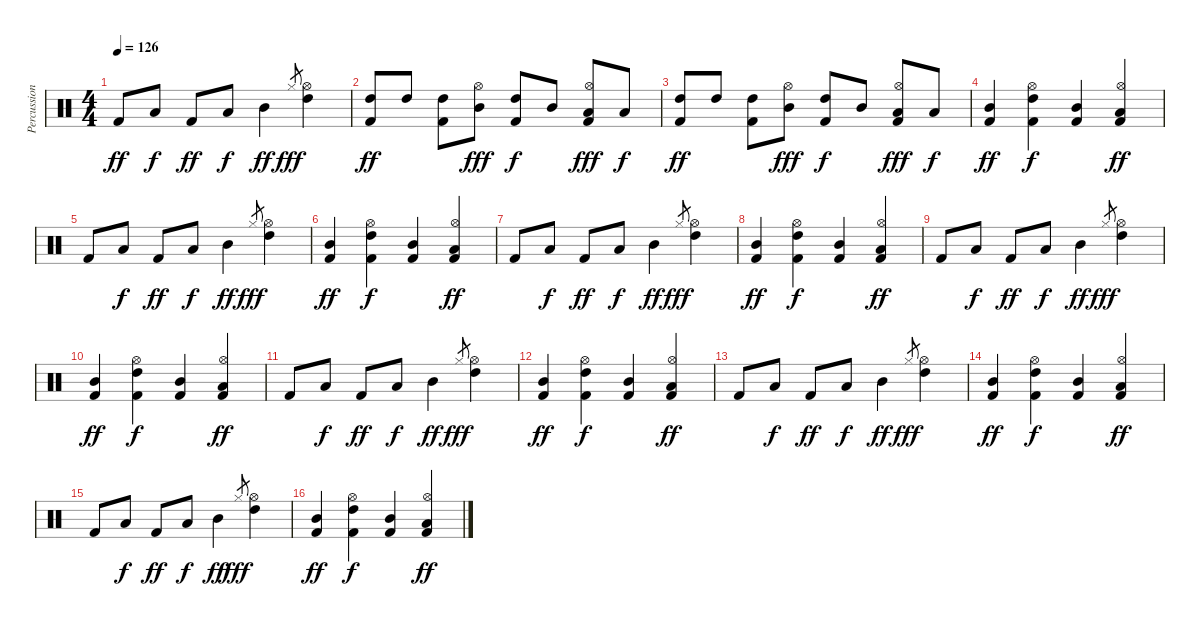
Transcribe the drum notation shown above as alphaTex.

\track ("Percussion" "Percussion") {instrument percussion}
\staff {score}
\articulation defaults
\ts (4 4)
\tempo 126
\clef neutral
\ks c "Kick (hit) 2".8{dy ff balance 3} "Low Floor Tom (hit)".8{dy f} "Kick (hit) 2".8{dy ff} "Low Floor Tom (hit)".8{dy f} "Mid Tom (hit)".4{dy ff} "Hi-Hat (closed)".8{gr dy fff}
("High Tom (hit)" "Hi-Hat (open)").4 |
("Kick (hit) 2" "High Tom (hit)").8{dy ff balance 10} "High Tom (hit)".8 ("Kick (hit) 2" "High Tom (hit)").8 ("Mid Tom (hit)" "Hi-Hat (open)").8{dy fff} ("Kick (hit) 2" "High Tom (hit)").8{dy f} "Mid Tom (hit)".8 ("Kick (hit) 2" "Low Tom (hit)" "Hi-Hat (open)").8{dy fff} "Low Tom (hit)".8{dy f} |
("Kick (hit) 2" "High Tom (hit)").8{dy ff} "High Tom (hit)".8 ("Kick (hit) 2" "High Tom (hit)").8 ("Mid Tom (hit)" "Hi-Hat (open)").8{dy fff} ("Kick (hit) 2" "High Tom (hit)").8{dy f} "Mid Tom (hit)".8 ("Kick (hit) 2" "Low Tom (hit)" "Hi-Hat (open)").8{dy fff} "Low Tom (hit)".8{dy f} |
("Kick (hit) 2" "Mid Tom (hit)").4{dy ff} ("Kick (hit) 2" "High Tom (hit)" "Hi-Hat (open)").4{dy f} ("Kick (hit) 2" "Mid Tom (hit)").4 ("Kick (hit) 2" "Low Tom (hit)" "Hi-Hat (open)").4{dy ff} |
"Kick (hit) 2".8 "Low Floor Tom (hit)".8{dy f} "Kick (hit) 2".8{dy ff} "Low Floor Tom (hit)".8{dy f} "Mid Tom (hit)".4{dy ff} "Hi-Hat (closed)".8{gr dy fff} ("High Tom (hit)" "Hi-Hat (open)").4 |
("Kick (hit) 2" "Mid Tom (hit)").4{dy ff} ("Kick (hit) 2" "High Tom (hit)" "Hi-Hat (open)").4{dy f} ("Kick (hit) 2" "Mid Tom (hit)").4 ("Kick (hit) 2" "Low Tom (hit)" "Hi-Hat (open)").4{dy ff} |
"Kick (hit) 2".8 "Low Floor Tom (hit)".8{dy f} "Kick (hit) 2".8{dy ff} "Low Floor Tom (hit)".8{dy f} "Mid Tom (hit)".4{dy ff} "Hi-Hat (closed)".8{gr dy fff} ("High Tom (hit)" "Hi-Hat (open)").4 |
("Kick (hit) 2" "Mid Tom (hit)").4{dy ff} ("Kick (hit) 2" "High Tom (hit)" "Hi-Hat (open)").4{dy f} ("Kick (hit) 2" "Mid Tom (hit)").4 ("Kick (hit) 2" "Low Tom (hit)" "Hi-Hat (open)").4{dy ff} |
"Kick (hit) 2".8 "Low Floor Tom (hit)".8{dy f} "Kick (hit) 2".8{dy ff} "Low Floor Tom (hit)".8{dy f} "Mid Tom (hit)".4{dy ff} "Hi-Hat (closed)".8{gr dy fff} ("High Tom (hit)" "Hi-Hat (open)").4 |
("Kick (hit) 2" "Mid Tom (hit)").4{dy ff} ("Kick (hit) 2" "High Tom (hit)" "Hi-Hat (open)").4{dy f} ("Kick (hit) 2" "Mid Tom (hit)").4 ("Kick (hit) 2" "Low Tom (hit)" "Hi-Hat (open)").4{dy ff} |
"Kick (hit) 2".8 "Low Floor Tom (hit)".8{dy f} "Kick (hit) 2".8{dy ff} "Low Floor Tom (hit)".8{dy f} "Mid Tom (hit)".4{dy ff} "Hi-Hat (closed)".8{gr dy fff} ("High Tom (hit)" "Hi-Hat (open)").4 |
("Kick (hit) 2" "Mid Tom (hit)").4{dy ff} ("Kick (hit) 2" "High Tom (hit)" "Hi-Hat (open)").4{dy f} ("Kick (hit) 2" "Mid Tom (hit)").4 ("Kick (hit) 2" "Low Tom (hit)" "Hi-Hat (open)").4{dy ff} |
"Kick (hit) 2".8 "Low Floor Tom (hit)".8{dy f} "Kick (hit) 2".8{dy ff} "Low Floor Tom (hit)".8{dy f} "Mid Tom (hit)".4{dy ff} "Hi-Hat (closed)".8{gr dy fff} ("High Tom (hit)" "Hi-Hat (open)").4 |
("Kick (hit) 2" "Mid Tom (hit)").4{dy ff} ("Kick (hit) 2" "High Tom (hit)" "Hi-Hat (open)").4{dy f} ("Kick (hit) 2" "Mid Tom (hit)").4 ("Kick (hit) 2" "Low Tom (hit)" "Hi-Hat (open)").4{dy ff} |
"Kick (hit) 2".8 "Low Floor Tom (hit)".8{dy f} "Kick (hit) 2".8{dy ff} "Low Floor Tom (hit)".8{dy f} "Mid Tom (hit)".4{dy ff} "Hi-Hat (closed)".8{gr dy fff} ("High Tom (hit)" "Hi-Hat (open)").4 |
("Kick (hit) 2" "Mid Tom (hit)").4{dy ff} ("Kick (hit) 2" "High Tom (hit)" "Hi-Hat (open)").4{dy f} ("Kick (hit) 2" "Mid Tom (hit)").4 ("Kick (hit) 2" "Low Tom (hit)" "Hi-Hat (open)").4{dy ff}
